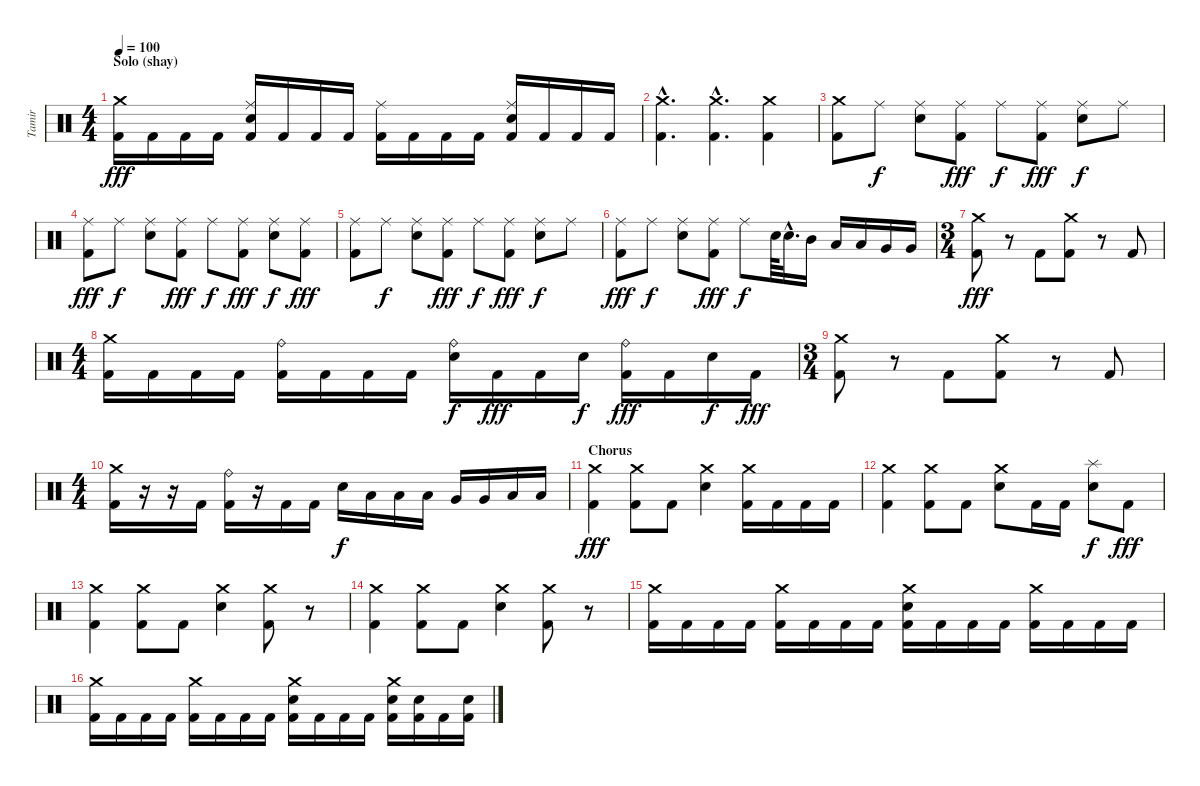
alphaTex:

\track ("Tamir" "Tamir") {instrument percussion}
\staff {score}
\articulation defaults
\ts (4 4)
\section ("" "Solo (shay)")
\tempo 100
\clef neutral
\ks c
("Crash medium (hit)" "Kick (hit) 2").16{dy fff} "Kick (hit) 2".16 "Kick (hit) 2".16 "Kick (hit) 2".16 ("Ride (middle)" "Electric Snare (hit)" "Kick (hit) 2").16 "Kick (hit) 2".16 "Kick (hit) 2".16 "Kick (hit) 2".16 ("Ride (middle)" "Kick (hit) 2").16 "Kick (hit) 2".16 "Kick (hit) 2".16 "Kick (hit) 2".16 ("Ride (middle)" "Electric Snare (hit)" "Kick (hit) 2").16 "Kick (hit) 2".16 "Kick (hit) 2".16 "Kick (hit) 2".16 |
("Crash medium (hit)"{hac} "Kick (hit) 2"{hac}).4{d} ("Crash medium (hit)"{hac} "Kick (hit) 2"{hac}).4{d} ("Crash medium (hit)" "Kick (hit) 2").4 |
("Crash medium (hit)" "Kick (hit) 2").8 "Ride (middle)".8{dy f} ("Ride (middle)" "Electric Snare (hit)").8 ("Ride (middle)" "Kick (hit) 2").8{dy fff} "Ride (middle)".8{dy f} ("Ride (middle)" "Kick (hit) 2").8{dy fff} ("Ride (middle)" "Electric Snare (hit)").8{dy f} "Ride (middle)".8 |
("Ride (middle)" "Kick (hit) 2").8{dy fff} "Ride (middle)".8{dy f} ("Ride (middle)" "Electric Snare (hit)").8 ("Ride (middle)" "Kick (hit) 2").8{dy fff} "Ride (middle)".8{dy f} ("Ride (middle)" "Kick (hit) 2").8{dy fff} ("Ride (middle)" "Electric Snare (hit)").8{dy f} ("Ride (middle)" "Kick (hit) 2").8{dy fff} |
("Ride (middle)" "Kick (hit) 2").8 "Ride (middle)".8{dy f} ("Ride (middle)" "Electric Snare (hit)").8 ("Ride (middle)" "Kick (hit) 2").8{dy fff} "Ride (middle)".8{dy f} ("Ride (middle)" "Kick (hit) 2").8{dy fff} ("Ride (middle)" "Electric Snare (hit)").8{dy f} "Ride (middle)".8 |
("Ride (middle)" "Kick (hit) 2").8{dy fff} "Ride (middle)".8{dy f} ("Ride (middle)" "Electric Snare (hit)").8 ("Ride (middle)" "Kick (hit) 2").8{dy fff} "Ride (middle)".8{dy f} "Electric Snare (hit)".64 "Electric Snare (hit)"{hac}.32{d} "Mid Tom (hit)".16 "Low Tom (hit)".16 "Low Tom (hit)".16 "Very Low Tom (hit)".16 "Very Low Tom (hit)".16 |
\ts (3 4)
("Crash medium (hit)" "Kick (hit) 2").8{dy fff} r.8 "Kick (hit) 2".8 ("Crash medium (hit)" "Kick (hit) 2").8 r.8 "Kick (hit) 2".8 |
\ts (4 4)
("Crash medium (hit)" "Kick (hit) 2").16 "Kick (hit) 2".16 "Kick (hit) 2".16 "Kick (hit) 2".16 ("Ride (bell)" "Kick (hit) 2").16 "Kick (hit) 2".16 "Kick (hit) 2".16 "Kick (hit) 2".16 ("Ride (bell)" "Electric Snare (hit)").16{dy f} "Kick (hit) 2".16{dy fff} "Kick (hit) 2".16 "Electric Snare (hit)".16{dy f} ("Ride (bell)" "Kick (hit) 2").16{dy fff} "Kick (hit) 2".16 "Electric Snare (hit)".16{dy f} "Kick (hit) 2".16{dy fff} |
\ts (3 4)
("Crash medium (hit)" "Kick (hit) 2").8 r.8 "Kick (hit) 2".8 ("Crash medium (hit)" "Kick (hit) 2").8 r.8 "Kick (hit) 2".8 |
\ts (4 4)
("Crash medium (hit)" "Kick (hit) 2").16 r.16 r.16 "Kick (hit) 2".16 ("Ride (bell)" "Kick (hit) 2").16 r.16 "Kick (hit) 2".16 "Kick (hit) 2".16 "Electric Snare (hit)".16{dy f} "Low Tom (hit)".16 "Low Tom (hit)".16 "Low Tom (hit)".16 "Very Low Tom (hit)".16 "Very Low Tom (hit)".16 "Low Floor Tom (hit)".16 "Low Floor Tom (hit)".16 |
\section ("" "Chorus")
("Crash medium (hit)" "Kick (hit) 2").4{dy fff} ("Crash medium (hit)" "Kick (hit) 2").8 "Kick (hit) 2".8 ("Crash medium (hit)" "Electric Snare (hit)").4 ("Crash medium (hit)" "Kick (hit) 2").16 "Kick (hit) 2".16 "Kick (hit) 2".16 "Kick (hit) 2".16 |
("Crash medium (hit)" "Kick (hit) 2").4 ("Crash medium (hit)" "Kick (hit) 2").8 "Kick (hit) 2".8 ("Crash medium (hit)" "Electric Snare (hit)").8 "Kick (hit) 2".16 "Kick (hit) 2".16 ("Splash (hit)" "Electric Snare (hit)").8{dy f} "Kick (hit) 2".8{dy fff} |
("Crash medium (hit)" "Kick (hit) 2").4 ("Crash medium (hit)" "Kick (hit) 2").8 "Kick (hit) 2".8 ("Crash medium (hit)" "Electric Snare (hit)").4 ("Crash medium (hit)" "Kick (hit) 2").8 r.8 |
("Crash medium (hit)" "Kick (hit) 2").4 ("Crash medium (hit)" "Kick (hit) 2").8 "Kick (hit) 2".8 ("Crash medium (hit)" "Electric Snare (hit)").4 ("Crash medium (hit)" "Kick (hit) 2").8 r.8 |
("Crash medium (hit)" "Kick (hit) 2").16 "Kick (hit) 2".16 "Kick (hit) 2".16 "Kick (hit) 2".16 ("Crash medium (hit)" "Kick (hit) 2").16 "Kick (hit) 2".16 "Kick (hit) 2".16 "Kick (hit) 2".16 ("Crash medium (hit)" "Electric Snare (hit)" "Kick (hit) 2").16 "Kick (hit) 2".16 "Kick (hit) 2".16 "Kick (hit) 2".16 ("Crash medium (hit)" "Kick (hit) 2").16 "Kick (hit) 2".16 "Kick (hit) 2".16 "Kick (hit) 2".16 |
("Crash medium (hit)" "Kick (hit) 2").16 "Kick (hit) 2".16 "Kick (hit) 2".16 "Kick (hit) 2".16 ("Crash medium (hit)" "Kick (hit) 2").16 "Kick (hit) 2".16 "Kick (hit) 2".16 "Kick (hit) 2".16 ("Crash medium (hit)" "Electric Snare (hit)" "Kick (hit) 2").16 "Kick (hit) 2".16 "Kick (hit) 2".16 "Kick (hit) 2".16 ("Crash medium (hit)" "Electric Snare (hit)" "Kick (hit) 2").16 ("Electric Snare (hit)" "Kick (hit) 2").16 "Kick (hit) 2".16 ("Electric Snare (hit)" "Kick (hit) 2").16
